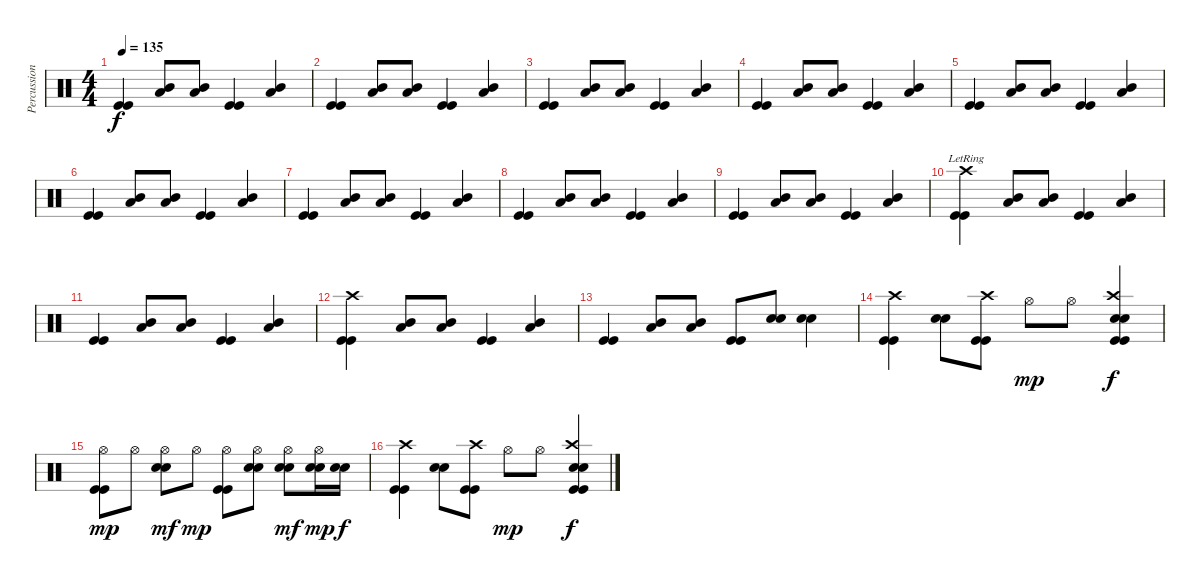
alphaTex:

\track ("Percussions" "Percussion") {instrument percussion}
\staff {score}
\articulation defaults
\ts (4 4)
\tempo 135
\clef neutral
\ks c
("Kick (hit)" "Kick (hit)").4{dy f} ("Low Tom (hit)" "Mid Tom (hit)").8 ("Low Tom (hit)" "Mid Tom (hit)").8 ("Kick (hit)" "Kick (hit)").4 ("Low Tom (hit)" "Mid Tom (hit)").4 |
("Kick (hit)" "Kick (hit)").4 ("Low Tom (hit)" "Mid Tom (hit)").8 ("Low Tom (hit)" "Mid Tom (hit)").8 ("Kick (hit)" "Kick (hit)").4 ("Low Tom (hit)" "Mid Tom (hit)").4 |
("Kick (hit)" "Kick (hit)").4 ("Low Tom (hit)" "Mid Tom (hit)").8 ("Low Tom (hit)" "Mid Tom (hit)").8 ("Kick (hit)" "Kick (hit)").4 ("Low Tom (hit)" "Mid Tom (hit)").4 |
("Kick (hit)" "Kick (hit)").4 ("Low Tom (hit)" "Mid Tom (hit)").8 ("Low Tom (hit)" "Mid Tom (hit)").8 ("Kick (hit)" "Kick (hit)").4 ("Low Tom (hit)" "Mid Tom (hit)").4 |
("Kick (hit)" "Kick (hit)").4 ("Low Tom (hit)" "Mid Tom (hit)").8 ("Low Tom (hit)" "Mid Tom (hit)").8 ("Kick (hit)" "Kick (hit)").4 ("Low Tom (hit)" "Mid Tom (hit)").4 |
("Kick (hit)" "Kick (hit)").4 ("Low Tom (hit)" "Mid Tom (hit)").8 ("Low Tom (hit)" "Mid Tom (hit)").8 ("Kick (hit)" "Kick (hit)").4 ("Low Tom (hit)" "Mid Tom (hit)").4 |
("Kick (hit)" "Kick (hit)").4 ("Low Tom (hit)" "Mid Tom (hit)").8 ("Low Tom (hit)" "Mid Tom (hit)").8 ("Kick (hit)" "Kick (hit)").4 ("Low Tom (hit)" "Mid Tom (hit)").4 |
("Kick (hit)" "Kick (hit)").4 ("Low Tom (hit)" "Mid Tom (hit)").8 ("Low Tom (hit)" "Mid Tom (hit)").8 ("Kick (hit)" "Kick (hit)").4 ("Low Tom (hit)" "Mid Tom (hit)").4 |
("Kick (hit)" "Kick (hit)").4 ("Low Tom (hit)" "Mid Tom (hit)").8 ("Low Tom (hit)" "Mid Tom (hit)").8 ("Kick (hit)" "Kick (hit)").4 ("Low Tom (hit)" "Mid Tom (hit)").4 |
("Crash high (hit)"{lr} "Kick (hit)" "Kick (hit)").4 ("Low Tom (hit)" "Mid Tom (hit)").8 ("Low Tom (hit)" "Mid Tom (hit)").8 ("Kick (hit)" "Kick (hit)").4 ("Low Tom (hit)" "Mid Tom (hit)").4 |
("Kick (hit)" "Kick (hit)").4 ("Low Tom (hit)" "Mid Tom (hit)").8 ("Low Tom (hit)" "Mid Tom (hit)").8 ("Kick (hit)" "Kick (hit)").4 ("Low Tom (hit)" "Mid Tom (hit)").4 |
("Crash high (hit)" "Kick (hit)" "Kick (hit)").4 ("Low Tom (hit)" "Mid Tom (hit)").8 ("Low Tom (hit)" "Mid Tom (hit)").8 ("Kick (hit)" "Kick (hit)").4 ("Low Tom (hit)" "Mid Tom (hit)").4 |
("Kick (hit)" "Kick (hit)").4 ("Low Tom (hit)" "Mid Tom (hit)").8 ("Low Tom (hit)" "Mid Tom (hit)").8 ("Kick (hit)" "Kick (hit)").8 ("Snare (hit) 2" "Snare (hit) 2").8 ("Snare (hit) 2" "Snare (hit) 2").4 |
("Crash high (hit)" "Kick (hit)" "Kick (hit)").4 ("Snare (hit) 2" "Snare (hit) 2").8 ("Crash high (hit)" "Kick (hit)" "Kick (hit)").8 "Hi-Hat (open)".8{dy mp} "Hi-Hat (open)".8 ("Crash high (hit)" "Snare (hit) 2" "Snare (hit) 2" "Kick (hit)" "Kick (hit)").4{dy f} |
("Hi-Hat (open)" "Kick (hit)" "Kick (hit)").8{dy mp} "Hi-Hat (open)".8 ("Hi-Hat (open)" "Snare (hit) 2" "Snare (hit) 2").8{dy mf} "Hi-Hat (open)".8{dy mp} ("Hi-Hat (open)" "Kick (hit)" "Kick (hit)").8 ("Hi-Hat (open)" "Snare (hit) 2" "Snare (hit) 2").8 ("Hi-Hat (open)" "Snare (hit) 2" "Snare (hit) 2").8{dy mf} ("Hi-Hat (open)" "Snare (hit) 2" "Snare (hit) 2").16{dy mp} ("Snare (hit) 2" "Snare (hit) 2").16{dy f} |
("Crash high (hit)" "Kick (hit)" "Kick (hit)").4 ("Snare (hit) 2" "Snare (hit) 2").8 ("Crash high (hit)" "Kick (hit)" "Kick (hit)").8 "Hi-Hat (open)".8{dy mp} "Hi-Hat (open)".8 ("Crash high (hit)" "Snare (hit) 2" "Snare (hit) 2" "Kick (hit)" "Kick (hit)").4{dy f}
